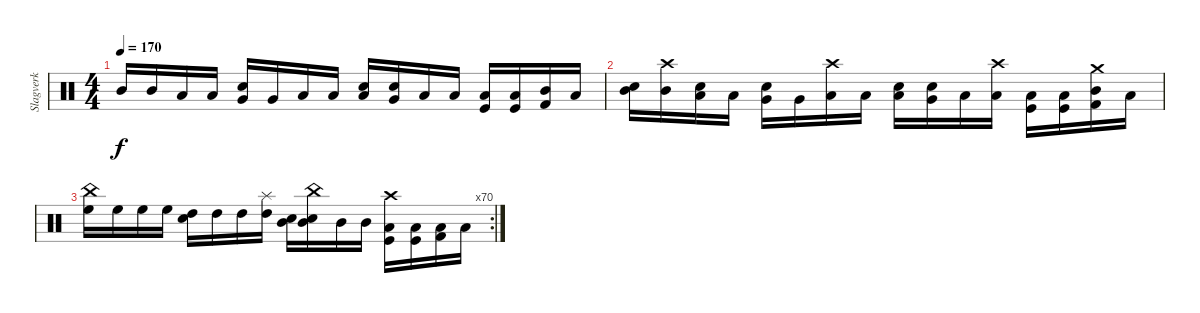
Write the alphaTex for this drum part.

\track ("Slagverk" "Slagverk") {instrument percussion}
\staff {score}
\articulation defaults
\ts (4 4)
\tempo 170
\clef neutral
\ks c "Mid Tom (hit)".16{dy f} "Mid Tom (hit)".16 "Low Tom (hit)".16 "Low Tom (hit)".16
("Electric Snare (hit)" "Very Low Tom (hit)").16 "Very Low Tom (hit)".16 "Low Floor Tom (hit)".16 "Low Floor Tom (hit)".16 ("Electric Snare (hit)" "Low Floor Tom (hit)").16 ("Electric Snare (hit)" "Very Low Tom (hit)").16 "Low Tom (hit)".16 "Low Tom (hit)".16 ("Kick (hit)" "Low Tom (hit)").16 ("Kick (hit)" "Low Tom (hit)").16 ("Kick (hit) 2" "Mid Tom (hit)").16 "Low Floor Tom (hit)".16 |
("Electric Snare (hit)" "Mid Tom (hit)").16 ("Crash high (hit)" "Mid Tom (hit)").16 ("Electric Snare (hit)" "Low Tom (hit)").16 "Low Tom (hit)".16 ("Electric Snare (hit)" "Very Low Tom (hit)").16 "Very Low Tom (hit)".16 ("Crash high (hit)" "Low Floor Tom (hit)").16 "Low Floor Tom (hit)".16 ("Electric Snare (hit)" "Low Floor Tom (hit)").16 ("Electric Snare (hit)" "Very Low Tom (hit)").16 "Low Tom (hit)".16 ("Crash high (hit)" "Low Tom (hit)").16 ("Kick (hit)" "Low Tom (hit)").16 ("Kick (hit)" "Low Tom (hit)").16 ("Crash medium (hit)" "Kick (hit) 2" "Mid Tom (hit)").16 "Low Floor Tom (hit)".16 |
\rc 70
("China (hit)" "High Floor Tom (hit)").16 "High Floor Tom (hit)".16 "High Floor Tom (hit)".16 "High Floor Tom (hit)".16 ("Electric Snare (hit)" "High Tom (hit)").16 "High Tom (hit)".16 "High Tom (hit)".16 ("Splash (hit)" "High Tom (hit)").16 ("Electric Snare (hit)" "Mid Tom (hit)").16 ("China (hit)" "Electric Snare (hit)" "Mid Tom (hit)").16 "Mid Tom (hit)".16 "Mid Tom (hit)".16 ("Crash high (hit)" "Kick (hit)" "Low Tom (hit)").16 ("Kick (hit)" "Low Tom (hit)").16 ("Kick (hit) 2" "Low Tom (hit)").16 "Low Tom (hit)".16
